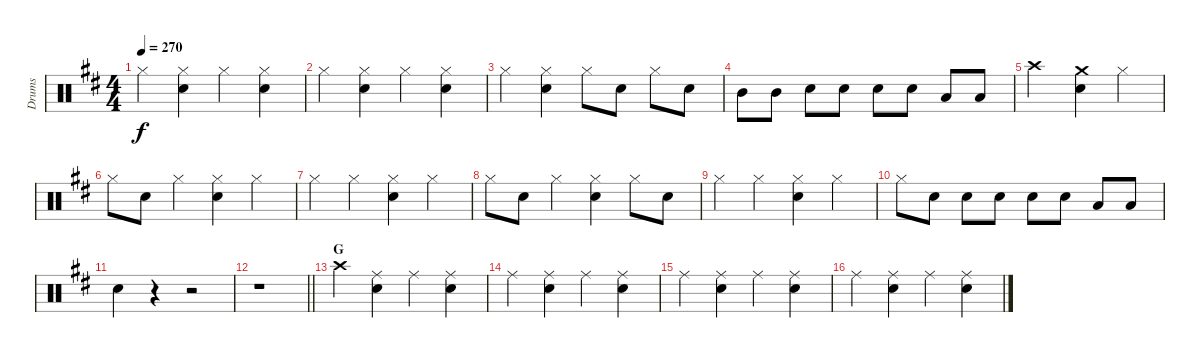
\track ("Drums" "Drums") {instrument percussion}
\staff {score}
\articulation defaults
\ts (4 4)
\tempo 270
\clef neutral
\ks d "Hi-Hat (closed)".4{dy f}
("Hi-Hat (closed)" "Snare (hit) 2").4 "Hi-Hat (closed)".4 ("Hi-Hat (closed)" "Snare (hit) 2").4 |
"Hi-Hat (closed)".4 ("Hi-Hat (closed)" "Snare (hit) 2").4 "Hi-Hat (closed)".4 ("Hi-Hat (closed)" "Snare (hit) 2").4 |
"Hi-Hat (closed)".4 ("Hi-Hat (closed)" "Snare (hit) 2").4 "Hi-Hat (closed)".8 "Snare (hit) 2".8 "Hi-Hat (closed)".8 "Snare (hit) 2".8 |
"Mid Tom (hit)".8 "Mid Tom (hit)".8 "Snare (hit) 2".8 "Snare (hit) 2".8 "Snare (hit) 2".8 "Snare (hit) 2".8 "Low Tom (hit)".8 "Low Tom (hit)".8 |
"Crash high (hit)".2 ("Crash medium (hit)" "Snare (hit) 2").4 "Hi-Hat (closed)".4 |
"Hi-Hat (closed)".8 "Snare (hit) 2".8 "Hi-Hat (closed)".4 ("Hi-Hat (closed)" "Snare (hit) 2").4 "Hi-Hat (closed)".4 |
"Hi-Hat (closed)".4 "Hi-Hat (closed)".4 ("Hi-Hat (closed)" "Snare (hit) 2").4 "Hi-Hat (closed)".4 |
"Hi-Hat (closed)".8 "Snare (hit) 2".8 "Hi-Hat (closed)".4 ("Hi-Hat (closed)" "Snare (hit) 2").4 "Hi-Hat (closed)".8 "Snare (hit) 2".8 |
"Hi-Hat (closed)".4 "Hi-Hat (closed)".4 ("Hi-Hat (closed)" "Snare (hit) 2").4 "Hi-Hat (closed)".4 |
"Hi-Hat (closed)".8 "Snare (hit) 2".8 "Snare (hit) 2".8 "Snare (hit) 2".8 "Snare (hit) 2".8 "Snare (hit) 2".8 "Low Tom (hit)".8 "Low Tom (hit)".8 |
"Snare (hit) 2".4 r.4 r.2 |
\barLineRight lightlight
r.1 |
\section ("" "G")
"Crash high (hit)".4 ("Ride (middle)" "Snare (hit) 2").4 "Ride (middle)".4 ("Ride (middle)" "Snare (hit) 2").4 |
"Ride (middle)".4 ("Ride (middle)" "Snare (hit) 2").4 "Ride (middle)".4 ("Ride (middle)" "Snare (hit) 2").4 |
"Ride (middle)".4 ("Ride (middle)" "Snare (hit) 2").4 "Ride (middle)".4 ("Ride (middle)" "Snare (hit) 2").4 |
"Ride (middle)".4 ("Ride (middle)" "Snare (hit) 2").4 "Ride (middle)".4 ("Ride (middle)" "Snare (hit) 2").4
